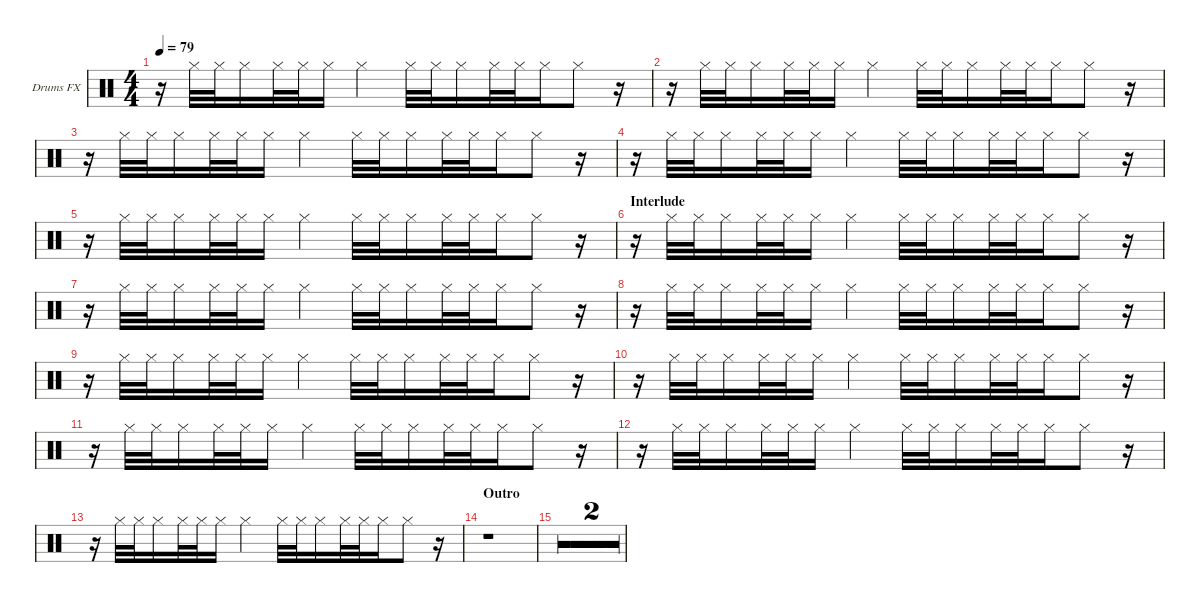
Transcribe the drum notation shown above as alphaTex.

\defaultSystemsLayout 4
\hideDynamics
\bracketExtendMode groupsimilarinstruments
\firstSystemTrackNameOrientation horizontal
\otherSystemsTrackNameOrientation horizontal
\track ("Drumkit FX" "Drums FX") {multiBarRest instrument percussion}
\staff {score}
\articulation defaults
\ts (4 4)
\tempo 79
\clef neutral
\ks c
r.16{dy mp} "Hi-Hat (closed)".32 "Hi-Hat (closed)".32 "Hi-Hat (closed)".16 "Hi-Hat (closed)".32 "Hi-Hat (closed)".32{beam merge} "Hi-Hat (closed)".16 "Hi-Hat (closed)".4 "Hi-Hat (closed)".32 "Hi-Hat (closed)".32 "Hi-Hat (closed)".16 "Hi-Hat (closed)".32 "Hi-Hat (closed)".32{beam merge} "Hi-Hat (closed)".16 "Hi-Hat (closed)".8 r.16 |
r.16 "Hi-Hat (closed)".32 "Hi-Hat (closed)".32 "Hi-Hat (closed)".16 "Hi-Hat (closed)".32 "Hi-Hat (closed)".32{beam merge} "Hi-Hat (closed)".16 "Hi-Hat (closed)".4 "Hi-Hat (closed)".32 "Hi-Hat (closed)".32 "Hi-Hat (closed)".16 "Hi-Hat (closed)".32 "Hi-Hat (closed)".32{beam merge} "Hi-Hat (closed)".16 "Hi-Hat (closed)".8 r.16 |
r.16 "Hi-Hat (closed)".32 "Hi-Hat (closed)".32 "Hi-Hat (closed)".16 "Hi-Hat (closed)".32 "Hi-Hat (closed)".32{beam merge} "Hi-Hat (closed)".16 "Hi-Hat (closed)".4 "Hi-Hat (closed)".32 "Hi-Hat (closed)".32 "Hi-Hat (closed)".16 "Hi-Hat (closed)".32 "Hi-Hat (closed)".32{beam merge} "Hi-Hat (closed)".16 "Hi-Hat (closed)".8 r.16 |
r.16 "Hi-Hat (closed)".32 "Hi-Hat (closed)".32 "Hi-Hat (closed)".16 "Hi-Hat (closed)".32 "Hi-Hat (closed)".32{beam merge} "Hi-Hat (closed)".16 "Hi-Hat (closed)".4 "Hi-Hat (closed)".32 "Hi-Hat (closed)".32 "Hi-Hat (closed)".16 "Hi-Hat (closed)".32 "Hi-Hat (closed)".32{beam merge} "Hi-Hat (closed)".16 "Hi-Hat (closed)".8 r.16 |
r.16 "Hi-Hat (closed)".32 "Hi-Hat (closed)".32 "Hi-Hat (closed)".16 "Hi-Hat (closed)".32 "Hi-Hat (closed)".32{beam merge} "Hi-Hat (closed)".16 "Hi-Hat (closed)".4 "Hi-Hat (closed)".32 "Hi-Hat (closed)".32 "Hi-Hat (closed)".16 "Hi-Hat (closed)".32 "Hi-Hat (closed)".32{beam merge} "Hi-Hat (closed)".16 "Hi-Hat (closed)".8 r.16 |
\section ("" "Interlude")
r.16 "Hi-Hat (closed)".32 "Hi-Hat (closed)".32 "Hi-Hat (closed)".16 "Hi-Hat (closed)".32 "Hi-Hat (closed)".32{beam merge} "Hi-Hat (closed)".16 "Hi-Hat (closed)".4 "Hi-Hat (closed)".32 "Hi-Hat (closed)".32 "Hi-Hat (closed)".16 "Hi-Hat (closed)".32 "Hi-Hat (closed)".32{beam merge} "Hi-Hat (closed)".16 "Hi-Hat (closed)".8 r.16 |
r.16 "Hi-Hat (closed)".32 "Hi-Hat (closed)".32 "Hi-Hat (closed)".16 "Hi-Hat (closed)".32 "Hi-Hat (closed)".32{beam merge} "Hi-Hat (closed)".16 "Hi-Hat (closed)".4 "Hi-Hat (closed)".32 "Hi-Hat (closed)".32 "Hi-Hat (closed)".16 "Hi-Hat (closed)".32 "Hi-Hat (closed)".32{beam merge} "Hi-Hat (closed)".16 "Hi-Hat (closed)".8 r.16 |
r.16 "Hi-Hat (closed)".32 "Hi-Hat (closed)".32 "Hi-Hat (closed)".16 "Hi-Hat (closed)".32 "Hi-Hat (closed)".32{beam merge} "Hi-Hat (closed)".16 "Hi-Hat (closed)".4 "Hi-Hat (closed)".32 "Hi-Hat (closed)".32 "Hi-Hat (closed)".16 "Hi-Hat (closed)".32 "Hi-Hat (closed)".32{beam merge} "Hi-Hat (closed)".16 "Hi-Hat (closed)".8 r.16 |
r.16 "Hi-Hat (closed)".32 "Hi-Hat (closed)".32 "Hi-Hat (closed)".16 "Hi-Hat (closed)".32 "Hi-Hat (closed)".32{beam merge} "Hi-Hat (closed)".16 "Hi-Hat (closed)".4 "Hi-Hat (closed)".32 "Hi-Hat (closed)".32 "Hi-Hat (closed)".16 "Hi-Hat (closed)".32 "Hi-Hat (closed)".32{beam merge} "Hi-Hat (closed)".16 "Hi-Hat (closed)".8 r.16 |
r.16 "Hi-Hat (closed)".32 "Hi-Hat (closed)".32 "Hi-Hat (closed)".16 "Hi-Hat (closed)".32 "Hi-Hat (closed)".32{beam merge} "Hi-Hat (closed)".16 "Hi-Hat (closed)".4 "Hi-Hat (closed)".32 "Hi-Hat (closed)".32 "Hi-Hat (closed)".16 "Hi-Hat (closed)".32 "Hi-Hat (closed)".32{beam merge} "Hi-Hat (closed)".16 "Hi-Hat (closed)".8 r.16 |
r.16 "Hi-Hat (closed)".32 "Hi-Hat (closed)".32 "Hi-Hat (closed)".16 "Hi-Hat (closed)".32 "Hi-Hat (closed)".32{beam merge} "Hi-Hat (closed)".16 "Hi-Hat (closed)".4 "Hi-Hat (closed)".32 "Hi-Hat (closed)".32 "Hi-Hat (closed)".16 "Hi-Hat (closed)".32 "Hi-Hat (closed)".32{beam merge} "Hi-Hat (closed)".16 "Hi-Hat (closed)".8 r.16 |
r.16 "Hi-Hat (closed)".32 "Hi-Hat (closed)".32 "Hi-Hat (closed)".16 "Hi-Hat (closed)".32 "Hi-Hat (closed)".32{beam merge} "Hi-Hat (closed)".16 "Hi-Hat (closed)".4 "Hi-Hat (closed)".32 "Hi-Hat (closed)".32 "Hi-Hat (closed)".16 "Hi-Hat (closed)".32 "Hi-Hat (closed)".32{beam merge} "Hi-Hat (closed)".16 "Hi-Hat (closed)".8 r.16 |
r.16 "Hi-Hat (closed)".32 "Hi-Hat (closed)".32 "Hi-Hat (closed)".16 "Hi-Hat (closed)".32 "Hi-Hat (closed)".32{beam merge} "Hi-Hat (closed)".16 "Hi-Hat (closed)".4 "Hi-Hat (closed)".32 "Hi-Hat (closed)".32 "Hi-Hat (closed)".16 "Hi-Hat (closed)".32 "Hi-Hat (closed)".32{beam merge} "Hi-Hat (closed)".16 "Hi-Hat (closed)".8 r.16 |
\section ("" "Outro")
r.1 |
r.1 |
r.1
